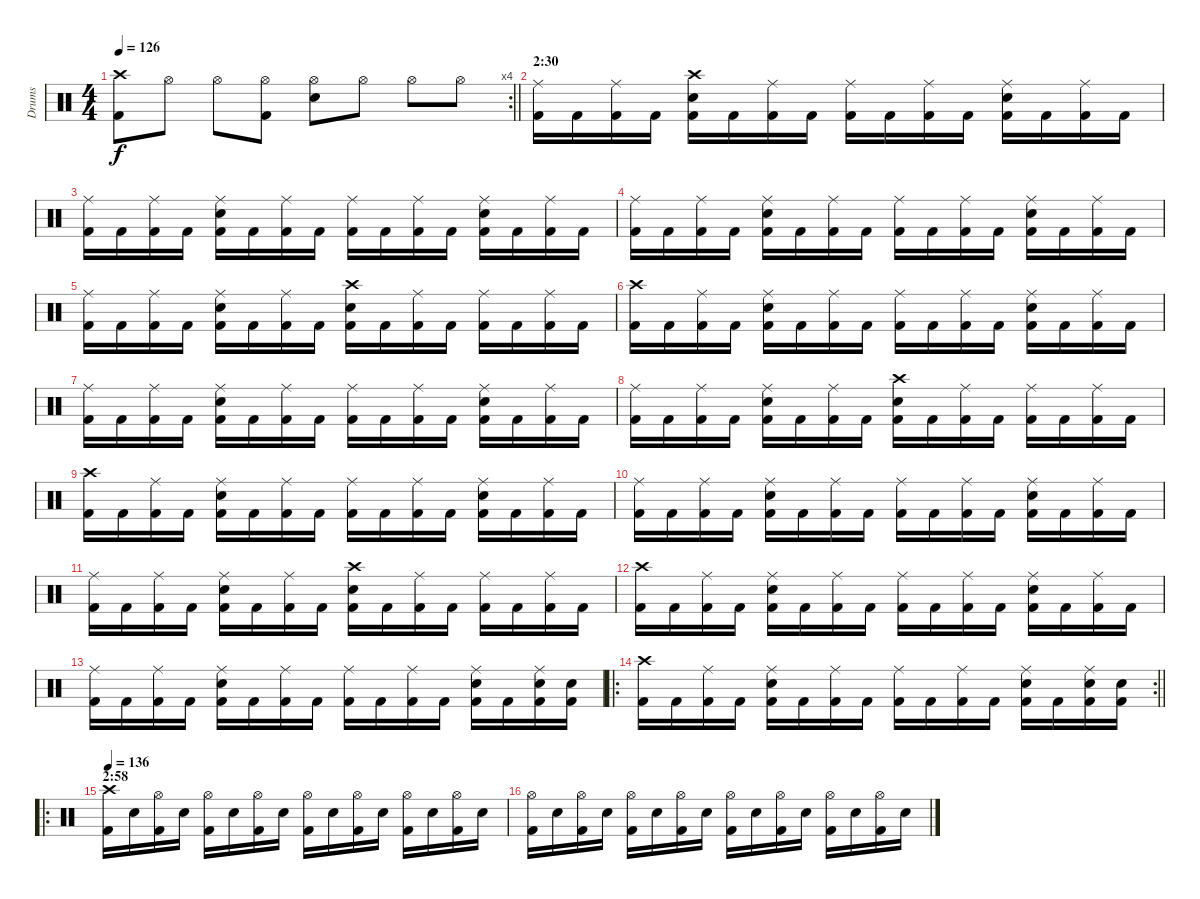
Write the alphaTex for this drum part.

\track ("Drums" "Drums") {instrument percussion}
\staff {score}
\articulation defaults
\rc 4
\ts (4 4)
\tempo 126
\clef neutral
\barLineRight lightlight
\ks c
("Crash high (hit)" "Kick (hit) 2").8{dy f} "Hi-Hat (open)".8 "Hi-Hat (open)".8 ("Hi-Hat (open)" "Kick (hit) 2").8 ("Hi-Hat (open)" "Electric Snare (hit)").8 "Hi-Hat (open)".8 "Hi-Hat (open)".8 "Hi-Hat (open)".8 |
\section ("" "2:30")
("Ride (middle)" "Kick (hit) 2").16 "Kick (hit) 2".16 ("Ride (middle)" "Kick (hit) 2").16 "Kick (hit) 2".16 ("Crash high (hit)" "Electric Snare (hit)" "Kick (hit) 2").16 "Kick (hit) 2".16 ("Ride (middle)" "Kick (hit) 2").16 "Kick (hit) 2".16 ("Ride (middle)" "Kick (hit) 2").16 "Kick (hit) 2".16 ("Ride (middle)" "Kick (hit) 2").16 "Kick (hit) 2".16 ("Ride (middle)" "Electric Snare (hit)" "Kick (hit) 2").16 "Kick (hit) 2".16 ("Ride (middle)" "Kick (hit) 2").16 "Kick (hit) 2".16 |
("Ride (middle)" "Kick (hit) 2").16 "Kick (hit) 2".16 ("Ride (middle)" "Kick (hit) 2").16 "Kick (hit) 2".16 ("Ride (middle)" "Electric Snare (hit)" "Kick (hit) 2").16 "Kick (hit) 2".16 ("Ride (middle)" "Kick (hit) 2").16 "Kick (hit) 2".16 ("Ride (middle)" "Kick (hit) 2").16 "Kick (hit) 2".16 ("Ride (middle)" "Kick (hit) 2").16 "Kick (hit) 2".16 ("Ride (middle)" "Electric Snare (hit)" "Kick (hit) 2").16 "Kick (hit) 2".16 ("Ride (middle)" "Kick (hit) 2").16 "Kick (hit) 2".16 |
("Ride (middle)" "Kick (hit) 2").16 "Kick (hit) 2".16 ("Ride (middle)" "Kick (hit) 2").16 "Kick (hit) 2".16 ("Ride (middle)" "Electric Snare (hit)" "Kick (hit) 2").16 "Kick (hit) 2".16 ("Ride (middle)" "Kick (hit) 2").16 "Kick (hit) 2".16 ("Ride (middle)" "Kick (hit) 2").16 "Kick (hit) 2".16 ("Ride (middle)" "Kick (hit) 2").16 "Kick (hit) 2".16 ("Ride (middle)" "Electric Snare (hit)" "Kick (hit) 2").16 "Kick (hit) 2".16 ("Ride (middle)" "Kick (hit) 2").16 "Kick (hit) 2".16 |
("Ride (middle)" "Kick (hit) 2").16 "Kick (hit) 2".16 ("Ride (middle)" "Kick (hit) 2").16 "Kick (hit) 2".16 ("Ride (middle)" "Electric Snare (hit)" "Kick (hit) 2").16 "Kick (hit) 2".16 ("Ride (middle)" "Kick (hit) 2").16 "Kick (hit) 2".16 ("Crash high (hit)" "Electric Snare (hit)" "Kick (hit) 2").16 "Kick (hit) 2".16 ("Ride (middle)" "Kick (hit) 2").16 "Kick (hit) 2".16 ("Ride (middle)" "Kick (hit) 2").16 "Kick (hit) 2".16 ("Ride (middle)" "Kick (hit) 2").16 "Kick (hit) 2".16 |
("Crash high (hit)" "Kick (hit) 2").16 "Kick (hit) 2".16 ("Ride (middle)" "Kick (hit) 2").16 "Kick (hit) 2".16 ("Ride (middle)" "Electric Snare (hit)" "Kick (hit) 2").16 "Kick (hit) 2".16 ("Ride (middle)" "Kick (hit) 2").16 "Kick (hit) 2".16 ("Ride (middle)" "Kick (hit) 2").16 "Kick (hit) 2".16 ("Ride (middle)" "Kick (hit) 2").16 "Kick (hit) 2".16 ("Ride (middle)" "Electric Snare (hit)" "Kick (hit) 2").16 "Kick (hit) 2".16 ("Ride (middle)" "Kick (hit) 2").16 "Kick (hit) 2".16 |
("Ride (middle)" "Kick (hit) 2").16 "Kick (hit) 2".16 ("Ride (middle)" "Kick (hit) 2").16 "Kick (hit) 2".16 ("Ride (middle)" "Electric Snare (hit)" "Kick (hit) 2").16 "Kick (hit) 2".16 ("Ride (middle)" "Kick (hit) 2").16 "Kick (hit) 2".16 ("Ride (middle)" "Kick (hit) 2").16 "Kick (hit) 2".16 ("Ride (middle)" "Kick (hit) 2").16 "Kick (hit) 2".16 ("Ride (middle)" "Electric Snare (hit)" "Kick (hit) 2").16 "Kick (hit) 2".16 ("Ride (middle)" "Kick (hit) 2").16 "Kick (hit) 2".16 |
("Ride (middle)" "Kick (hit) 2").16 "Kick (hit) 2".16 ("Ride (middle)" "Kick (hit) 2").16 "Kick (hit) 2".16 ("Ride (middle)" "Electric Snare (hit)" "Kick (hit) 2").16 "Kick (hit) 2".16 ("Ride (middle)" "Kick (hit) 2").16 "Kick (hit) 2".16 ("Crash high (hit)" "Electric Snare (hit)" "Kick (hit) 2").16 "Kick (hit) 2".16 ("Ride (middle)" "Kick (hit) 2").16 "Kick (hit) 2".16 ("Ride (middle)" "Kick (hit) 2").16 "Kick (hit) 2".16 ("Ride (middle)" "Kick (hit) 2").16 "Kick (hit) 2".16 |
("Crash high (hit)" "Kick (hit) 2").16 "Kick (hit) 2".16 ("Ride (middle)" "Kick (hit) 2").16 "Kick (hit) 2".16 ("Ride (middle)" "Electric Snare (hit)" "Kick (hit) 2").16 "Kick (hit) 2".16 ("Ride (middle)" "Kick (hit) 2").16 "Kick (hit) 2".16 ("Ride (middle)" "Kick (hit) 2").16 "Kick (hit) 2".16 ("Ride (middle)" "Kick (hit) 2").16 "Kick (hit) 2".16 ("Ride (middle)" "Electric Snare (hit)" "Kick (hit) 2").16 "Kick (hit) 2".16 ("Ride (middle)" "Kick (hit) 2").16 "Kick (hit) 2".16 |
("Ride (middle)" "Kick (hit) 2").16 "Kick (hit) 2".16 ("Ride (middle)" "Kick (hit) 2").16 "Kick (hit) 2".16 ("Ride (middle)" "Electric Snare (hit)" "Kick (hit) 2").16 "Kick (hit) 2".16 ("Ride (middle)" "Kick (hit) 2").16 "Kick (hit) 2".16 ("Ride (middle)" "Kick (hit) 2").16 "Kick (hit) 2".16 ("Ride (middle)" "Kick (hit) 2").16 "Kick (hit) 2".16 ("Ride (middle)" "Electric Snare (hit)" "Kick (hit) 2").16 "Kick (hit) 2".16 ("Ride (middle)" "Kick (hit) 2").16 "Kick (hit) 2".16 |
("Ride (middle)" "Kick (hit) 2").16 "Kick (hit) 2".16 ("Ride (middle)" "Kick (hit) 2").16 "Kick (hit) 2".16 ("Ride (middle)" "Electric Snare (hit)" "Kick (hit) 2").16 "Kick (hit) 2".16 ("Ride (middle)" "Kick (hit) 2").16 "Kick (hit) 2".16 ("Crash high (hit)" "Electric Snare (hit)" "Kick (hit) 2").16 "Kick (hit) 2".16 ("Ride (middle)" "Kick (hit) 2").16 "Kick (hit) 2".16 ("Ride (middle)" "Kick (hit) 2").16 "Kick (hit) 2".16 ("Ride (middle)" "Kick (hit) 2").16 "Kick (hit) 2".16 |
("Crash high (hit)" "Kick (hit) 2").16 "Kick (hit) 2".16 ("Ride (middle)" "Kick (hit) 2").16 "Kick (hit) 2".16 ("Ride (middle)" "Electric Snare (hit)" "Kick (hit) 2").16 "Kick (hit) 2".16 ("Ride (middle)" "Kick (hit) 2").16 "Kick (hit) 2".16 ("Ride (middle)" "Kick (hit) 2").16 "Kick (hit) 2".16 ("Ride (middle)" "Kick (hit) 2").16 "Kick (hit) 2".16 ("Ride (middle)" "Electric Snare (hit)" "Kick (hit) 2").16 "Kick (hit) 2".16 ("Ride (middle)" "Kick (hit) 2").16 "Kick (hit) 2".16 |
("Ride (middle)" "Kick (hit) 2").16 "Kick (hit) 2".16 ("Ride (middle)" "Kick (hit) 2").16 "Kick (hit) 2".16 ("Ride (middle)" "Electric Snare (hit)" "Kick (hit) 2").16 "Kick (hit) 2".16 ("Ride (middle)" "Kick (hit) 2").16 "Kick (hit) 2".16 ("Ride (middle)" "Kick (hit) 2").16 "Kick (hit) 2".16 ("Ride (middle)" "Kick (hit) 2").16 "Kick (hit) 2".16 ("Ride (middle)" "Electric Snare (hit)" "Kick (hit) 2").16 "Kick (hit) 2".16 ("Ride (middle)" "Electric Snare (hit)" "Kick (hit) 2").16 ("Electric Snare (hit)" "Kick (hit) 2").16 |
\ro
\rc 2
\barLineRight lightlight
("Crash high (hit)" "Kick (hit) 2").16 "Kick (hit) 2".16 ("Ride (middle)" "Kick (hit) 2").16 "Kick (hit) 2".16 ("Ride (middle)" "Electric Snare (hit)" "Kick (hit) 2").16 "Kick (hit) 2".16 ("Ride (middle)" "Kick (hit) 2").16 "Kick (hit) 2".16 ("Ride (middle)" "Kick (hit) 2").16 "Kick (hit) 2".16 ("Ride (middle)" "Kick (hit) 2").16 "Kick (hit) 2".16 ("Ride (middle)" "Electric Snare (hit)" "Kick (hit) 2").16 "Kick (hit) 2".16 ("Ride (middle)" "Electric Snare (hit)" "Kick (hit) 2").16 ("Electric Snare (hit)" "Kick (hit) 2").16 |
\ro
\section ("" "2:58")
\tempo 136
("Crash high (hit)" "Kick (hit) 2").16 "Electric Snare (hit)".16 ("Hi-Hat (open)" "Kick (hit) 2").16 "Electric Snare (hit)".16 ("Hi-Hat (open)" "Kick (hit) 2").16 "Electric Snare (hit)".16 ("Hi-Hat (open)" "Kick (hit) 2").16 "Electric Snare (hit)".16 ("Hi-Hat (open)" "Kick (hit) 2").16 "Electric Snare (hit)".16 ("Hi-Hat (open)" "Kick (hit) 2").16 "Electric Snare (hit)".16 ("Hi-Hat (open)" "Kick (hit) 2").16 "Electric Snare (hit)".16 ("Hi-Hat (open)" "Kick (hit) 2").16 "Electric Snare (hit)".16 |
("Hi-Hat (open)" "Kick (hit) 2").16 "Electric Snare (hit)".16 ("Hi-Hat (open)" "Kick (hit) 2").16 "Electric Snare (hit)".16 ("Hi-Hat (open)" "Kick (hit) 2").16 "Electric Snare (hit)".16 ("Hi-Hat (open)" "Kick (hit) 2").16 "Electric Snare (hit)".16 ("Hi-Hat (open)" "Kick (hit) 2").16 "Electric Snare (hit)".16 ("Hi-Hat (open)" "Kick (hit) 2").16 "Electric Snare (hit)".16 ("Hi-Hat (open)" "Kick (hit) 2").16 "Electric Snare (hit)".16 ("Hi-Hat (open)" "Kick (hit) 2").16 "Electric Snare (hit)".16
